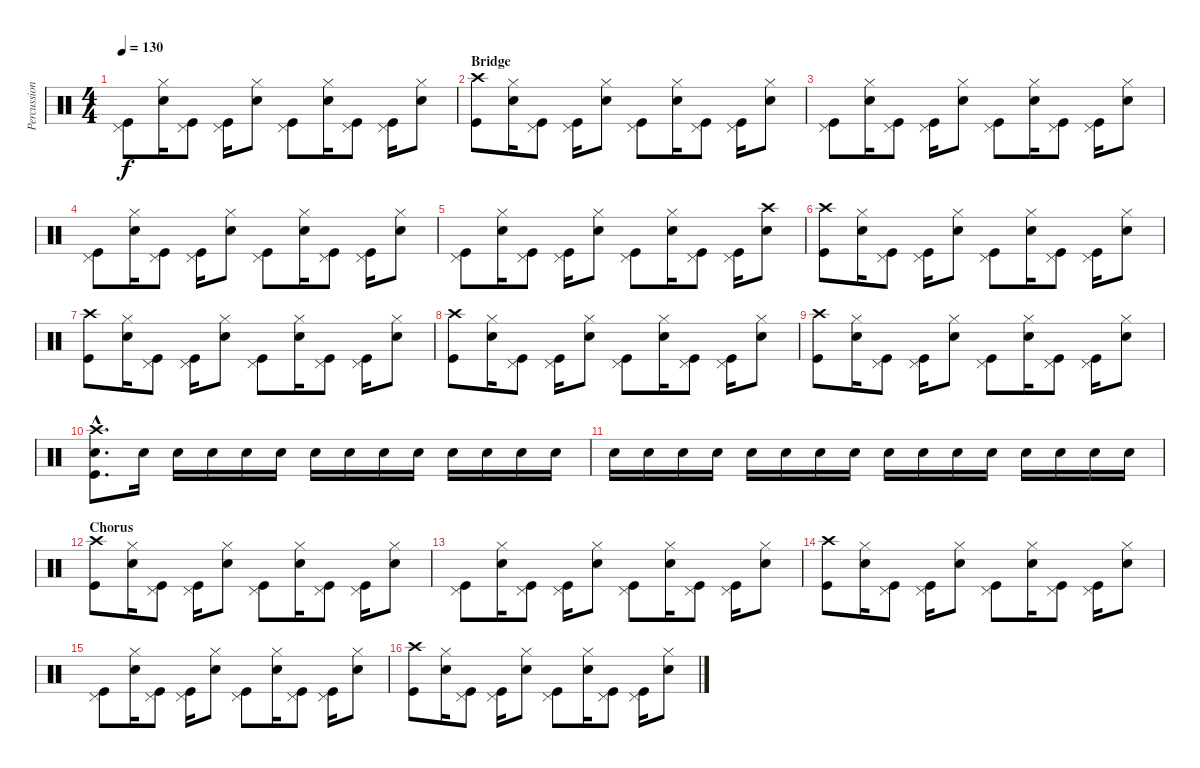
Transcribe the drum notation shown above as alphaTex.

\track ("Percussion" "Percussion") {instrument percussion}
\staff {score}
\articulation defaults
\ts (4 4)
\tempo 130
\clef neutral
\ks c
("Pedal Hi-Hat (hit)" "Kick (hit)").8{dy f} ("Hi-Hat (closed)" "Snare (hit) 2").16 ("Pedal Hi-Hat (hit)" "Kick (hit)").8 ("Pedal Hi-Hat (hit)" "Kick (hit)").16 ("Hi-Hat (closed)" "Snare (hit) 2").8 ("Pedal Hi-Hat (hit)" "Kick (hit)").8 ("Hi-Hat (closed)" "Snare (hit) 2").16 ("Pedal Hi-Hat (hit)" "Kick (hit)").8 ("Pedal Hi-Hat (hit)" "Kick (hit)").16 ("Hi-Hat (closed)" "Snare (hit) 2").8 |
\section ("" "Bridge")
("Crash high (hit)" "Kick (hit)").8 ("Hi-Hat (closed)" "Snare (hit) 2").16 ("Pedal Hi-Hat (hit)" "Kick (hit)").8 ("Pedal Hi-Hat (hit)" "Kick (hit)").16 ("Hi-Hat (closed)" "Snare (hit) 2").8 ("Pedal Hi-Hat (hit)" "Kick (hit)").8 ("Hi-Hat (closed)" "Snare (hit) 2").16 ("Pedal Hi-Hat (hit)" "Kick (hit)").8 ("Pedal Hi-Hat (hit)" "Kick (hit)").16 ("Hi-Hat (closed)" "Snare (hit) 2").8 |
("Pedal Hi-Hat (hit)" "Kick (hit)").8 ("Hi-Hat (closed)" "Snare (hit) 2").16 ("Pedal Hi-Hat (hit)" "Kick (hit)").8 ("Pedal Hi-Hat (hit)" "Kick (hit)").16 ("Hi-Hat (closed)" "Snare (hit) 2").8 ("Pedal Hi-Hat (hit)" "Kick (hit)").8 ("Hi-Hat (closed)" "Snare (hit) 2").16 ("Pedal Hi-Hat (hit)" "Kick (hit)").8 ("Pedal Hi-Hat (hit)" "Kick (hit)").16 ("Hi-Hat (closed)" "Snare (hit) 2").8 |
("Pedal Hi-Hat (hit)" "Kick (hit)").8 ("Hi-Hat (closed)" "Snare (hit) 2").16 ("Pedal Hi-Hat (hit)" "Kick (hit)").8 ("Pedal Hi-Hat (hit)" "Kick (hit)").16 ("Hi-Hat (closed)" "Snare (hit) 2").8 ("Pedal Hi-Hat (hit)" "Kick (hit)").8 ("Hi-Hat (closed)" "Snare (hit) 2").16 ("Pedal Hi-Hat (hit)" "Kick (hit)").8 ("Pedal Hi-Hat (hit)" "Kick (hit)").16 ("Hi-Hat (closed)" "Snare (hit) 2").8 |
("Pedal Hi-Hat (hit)" "Kick (hit)").8 ("Hi-Hat (closed)" "Snare (hit) 2").16 ("Pedal Hi-Hat (hit)" "Kick (hit)").8 ("Pedal Hi-Hat (hit)" "Kick (hit)").16 ("Hi-Hat (closed)" "Snare (hit) 2").8 ("Pedal Hi-Hat (hit)" "Kick (hit)").8 ("Hi-Hat (closed)" "Snare (hit) 2").16 ("Pedal Hi-Hat (hit)" "Kick (hit)").8 ("Pedal Hi-Hat (hit)" "Kick (hit)").16 ("Crash high (hit)" "Snare (hit) 2").8 |
("Crash high (hit)" "Kick (hit)").8 ("Hi-Hat (closed)" "Snare (hit) 2").16 ("Pedal Hi-Hat (hit)" "Kick (hit)").8 ("Pedal Hi-Hat (hit)" "Kick (hit)").16 ("Hi-Hat (closed)" "Snare (hit) 2").8 ("Pedal Hi-Hat (hit)" "Kick (hit)").8 ("Hi-Hat (closed)" "Snare (hit) 2").16 ("Pedal Hi-Hat (hit)" "Kick (hit)").8 ("Pedal Hi-Hat (hit)" "Kick (hit)").16 ("Hi-Hat (closed)" "Snare (hit) 2").8 |
("Crash high (hit)" "Kick (hit)").8 ("Hi-Hat (closed)" "Snare (hit) 2").16 ("Pedal Hi-Hat (hit)" "Kick (hit)").8 ("Pedal Hi-Hat (hit)" "Kick (hit)").16 ("Hi-Hat (closed)" "Snare (hit) 2").8 ("Pedal Hi-Hat (hit)" "Kick (hit)").8 ("Hi-Hat (closed)" "Snare (hit) 2").16 ("Pedal Hi-Hat (hit)" "Kick (hit)").8 ("Pedal Hi-Hat (hit)" "Kick (hit)").16 ("Hi-Hat (closed)" "Snare (hit) 2").8 |
("Crash high (hit)" "Kick (hit)").8 ("Hi-Hat (closed)" "Snare (hit) 2").16 ("Pedal Hi-Hat (hit)" "Kick (hit)").8 ("Pedal Hi-Hat (hit)" "Kick (hit)").16 ("Hi-Hat (closed)" "Snare (hit) 2").8 ("Pedal Hi-Hat (hit)" "Kick (hit)").8 ("Hi-Hat (closed)" "Snare (hit) 2").16 ("Pedal Hi-Hat (hit)" "Kick (hit)").8 ("Pedal Hi-Hat (hit)" "Kick (hit)").16 ("Hi-Hat (closed)" "Snare (hit) 2").8 |
("Crash high (hit)" "Kick (hit)").8 ("Hi-Hat (closed)" "Snare (hit) 2").16 ("Pedal Hi-Hat (hit)" "Kick (hit)").8 ("Pedal Hi-Hat (hit)" "Kick (hit)").16 ("Hi-Hat (closed)" "Snare (hit) 2").8 ("Pedal Hi-Hat (hit)" "Kick (hit)").8 ("Hi-Hat (closed)" "Snare (hit) 2").16 ("Pedal Hi-Hat (hit)" "Kick (hit)").8 ("Pedal Hi-Hat (hit)" "Kick (hit)").16 ("Hi-Hat (closed)" "Snare (hit) 2").8 |
("Crash high (hit)"{hac} "Snare (hit) 2"{hac} "Kick (hit)"{hac}).8{d} "Snare (hit) 2".16{volume 0} "Snare (hit) 2".16{volume 12} "Snare (hit) 2".16 "Snare (hit) 2".16 "Snare (hit) 2".16 "Snare (hit) 2".16 "Snare (hit) 2".16 "Snare (hit) 2".16 "Snare (hit) 2".16 "Snare (hit) 2".16 "Snare (hit) 2".16 "Snare (hit) 2".16 "Snare (hit) 2".16 |
"Snare (hit) 2".16 "Snare (hit) 2".16 "Snare (hit) 2".16 "Snare (hit) 2".16 "Snare (hit) 2".16 "Snare (hit) 2".16 "Snare (hit) 2".16 "Snare (hit) 2".16 "Snare (hit) 2".16 "Snare (hit) 2".16 "Snare (hit) 2".16 "Snare (hit) 2".16 "Snare (hit) 2".16 "Snare (hit) 2".16 "Snare (hit) 2".16 "Snare (hit) 2".16 |
\section ("" "Chorus")
("Crash high (hit)" "Kick (hit)").8 ("Hi-Hat (closed)" "Snare (hit) 2").16 ("Pedal Hi-Hat (hit)" "Kick (hit)").8 ("Pedal Hi-Hat (hit)" "Kick (hit)").16 ("Hi-Hat (closed)" "Snare (hit) 2").8 ("Pedal Hi-Hat (hit)" "Kick (hit)").8 ("Hi-Hat (closed)" "Snare (hit) 2").16 ("Pedal Hi-Hat (hit)" "Kick (hit)").8 ("Pedal Hi-Hat (hit)" "Kick (hit)").16 ("Hi-Hat (closed)" "Snare (hit) 2").8 |
("Pedal Hi-Hat (hit)" "Kick (hit)").8 ("Hi-Hat (closed)" "Snare (hit) 2").16 ("Pedal Hi-Hat (hit)" "Kick (hit)").8 ("Pedal Hi-Hat (hit)" "Kick (hit)").16 ("Hi-Hat (closed)" "Snare (hit) 2").8 ("Pedal Hi-Hat (hit)" "Kick (hit)").8 ("Hi-Hat (closed)" "Snare (hit) 2").16 ("Pedal Hi-Hat (hit)" "Kick (hit)").8 ("Pedal Hi-Hat (hit)" "Kick (hit)").16 ("Hi-Hat (closed)" "Snare (hit) 2").8 |
("Crash high (hit)" "Kick (hit)").8 ("Hi-Hat (closed)" "Snare (hit) 2").16 ("Pedal Hi-Hat (hit)" "Kick (hit)").8 ("Pedal Hi-Hat (hit)" "Kick (hit)").16 ("Hi-Hat (closed)" "Snare (hit) 2").8 ("Pedal Hi-Hat (hit)" "Kick (hit)").8 ("Hi-Hat (closed)" "Snare (hit) 2").16 ("Pedal Hi-Hat (hit)" "Kick (hit)").8 ("Pedal Hi-Hat (hit)" "Kick (hit)").16 ("Hi-Hat (closed)" "Snare (hit) 2").8 |
("Pedal Hi-Hat (hit)" "Kick (hit)").8 ("Hi-Hat (closed)" "Snare (hit) 2").16 ("Pedal Hi-Hat (hit)" "Kick (hit)").8 ("Pedal Hi-Hat (hit)" "Kick (hit)").16 ("Hi-Hat (closed)" "Snare (hit) 2").8 ("Pedal Hi-Hat (hit)" "Kick (hit)").8 ("Hi-Hat (closed)" "Snare (hit) 2").16 ("Pedal Hi-Hat (hit)" "Kick (hit)").8 ("Pedal Hi-Hat (hit)" "Kick (hit)").16 ("Hi-Hat (closed)" "Snare (hit) 2").8 |
("Crash high (hit)" "Kick (hit)").8 ("Hi-Hat (closed)" "Snare (hit) 2").16 ("Pedal Hi-Hat (hit)" "Kick (hit)").8 ("Pedal Hi-Hat (hit)" "Kick (hit)").16 ("Hi-Hat (closed)" "Snare (hit) 2").8 ("Pedal Hi-Hat (hit)" "Kick (hit)").8 ("Hi-Hat (closed)" "Snare (hit) 2").16 ("Pedal Hi-Hat (hit)" "Kick (hit)").8 ("Pedal Hi-Hat (hit)" "Kick (hit)").16 ("Hi-Hat (closed)" "Snare (hit) 2").8
